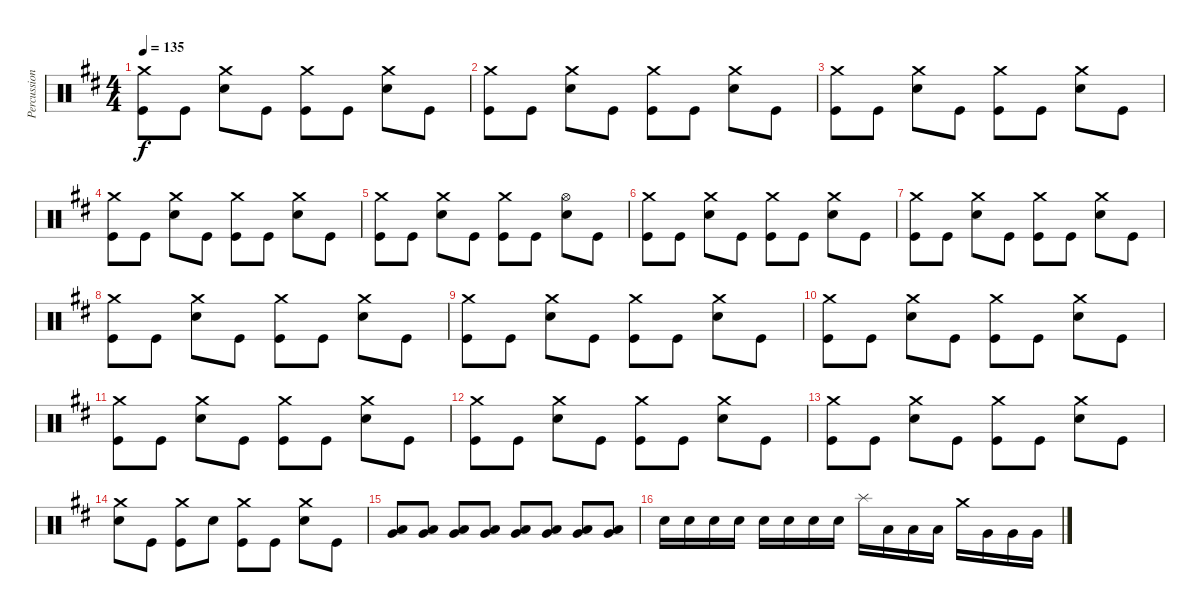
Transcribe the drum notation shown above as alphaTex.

\track ("Percussion" "Percussion") {instrument percussion}
\staff {score}
\articulation defaults
\ts (4 4)
\tempo 135
\clef neutral
\ks d
("Crash medium (hit)" "Kick (hit)").8{dy f} "Kick (hit)".8 ("Crash medium (hit)" "Electric Snare (hit)").8 "Kick (hit)".8 ("Crash medium (hit)" "Kick (hit)").8 "Kick (hit)".8 ("Crash medium (hit)" "Electric Snare (hit)").8 "Kick (hit)".8 |
("Crash medium (hit)" "Kick (hit)").8 "Kick (hit)".8 ("Crash medium (hit)" "Electric Snare (hit)").8 "Kick (hit)".8 ("Crash medium (hit)" "Kick (hit)").8 "Kick (hit)".8 ("Crash medium (hit)" "Electric Snare (hit)").8 "Kick (hit)".8 |
("Crash medium (hit)" "Kick (hit)").8 "Kick (hit)".8 ("Crash medium (hit)" "Electric Snare (hit)").8 "Kick (hit)".8 ("Crash medium (hit)" "Kick (hit)").8 "Kick (hit)".8 ("Crash medium (hit)" "Electric Snare (hit)").8 "Kick (hit)".8 |
("Crash medium (hit)" "Kick (hit)").8 "Kick (hit)".8 ("Crash medium (hit)" "Electric Snare (hit)").8 "Kick (hit)".8 ("Crash medium (hit)" "Kick (hit)").8 "Kick (hit)".8 ("Crash medium (hit)" "Electric Snare (hit)").8 "Kick (hit)".8 |
("Crash medium (hit)" "Kick (hit)").8 "Kick (hit)".8 ("Crash medium (hit)" "Electric Snare (hit)").8 "Kick (hit)".8 ("Crash medium (hit)" "Kick (hit)").8 "Kick (hit)".8 ("Hi-Hat (open)" "Electric Snare (hit)").8 "Kick (hit)".8 |
("Crash medium (hit)" "Kick (hit)").8 "Kick (hit)".8 ("Crash medium (hit)" "Electric Snare (hit)").8 "Kick (hit)".8 ("Crash medium (hit)" "Kick (hit)").8 "Kick (hit)".8 ("Crash medium (hit)" "Electric Snare (hit)").8 "Kick (hit)".8 |
("Crash medium (hit)" "Kick (hit)").8 "Kick (hit)".8 ("Crash medium (hit)" "Electric Snare (hit)").8 "Kick (hit)".8 ("Crash medium (hit)" "Kick (hit)").8 "Kick (hit)".8 ("Crash medium (hit)" "Electric Snare (hit)").8 "Kick (hit)".8 |
("Crash medium (hit)" "Kick (hit)").8 "Kick (hit)".8 ("Crash medium (hit)" "Electric Snare (hit)").8 "Kick (hit)".8 ("Crash medium (hit)" "Kick (hit)").8 "Kick (hit)".8 ("Crash medium (hit)" "Electric Snare (hit)").8 "Kick (hit)".8 |
("Crash medium (hit)" "Kick (hit)").8 "Kick (hit)".8 ("Crash medium (hit)" "Electric Snare (hit)").8 "Kick (hit)".8 ("Crash medium (hit)" "Kick (hit)").8 "Kick (hit)".8 ("Crash medium (hit)" "Electric Snare (hit)").8 "Kick (hit)".8 |
("Crash medium (hit)" "Kick (hit)").8 "Kick (hit)".8 ("Crash medium (hit)" "Electric Snare (hit)").8 "Kick (hit)".8 ("Crash medium (hit)" "Kick (hit)").8 "Kick (hit)".8 ("Crash medium (hit)" "Electric Snare (hit)").8 "Kick (hit)".8 |
("Crash medium (hit)" "Kick (hit)").8 "Kick (hit)".8 ("Crash medium (hit)" "Electric Snare (hit)").8 "Kick (hit)".8 ("Crash medium (hit)" "Kick (hit)").8 "Kick (hit)".8 ("Crash medium (hit)" "Electric Snare (hit)").8 "Kick (hit)".8 |
("Crash medium (hit)" "Kick (hit)").8 "Kick (hit)".8 ("Crash medium (hit)" "Electric Snare (hit)").8 "Kick (hit)".8 ("Crash medium (hit)" "Kick (hit)").8 "Kick (hit)".8 ("Crash medium (hit)" "Electric Snare (hit)").8 "Kick (hit)".8 |
("Crash medium (hit)" "Kick (hit)").8 "Kick (hit)".8 ("Crash medium (hit)" "Electric Snare (hit)").8 "Kick (hit)".8 ("Crash medium (hit)" "Kick (hit)").8 "Kick (hit)".8 ("Crash medium (hit)" "Electric Snare (hit)").8 "Kick (hit)".8 |
("Crash medium (hit)" "Electric Snare (hit)").8 "Kick (hit)".8 ("Crash medium (hit)" "Kick (hit)").8 "Electric Snare (hit)".8 ("Crash medium (hit)" "Kick (hit)").8 "Kick (hit)".8 ("Crash medium (hit)" "Electric Snare (hit)").8 "Kick (hit)".8 |
("Low Floor Tom (hit)" "Very Low Tom (hit)").8 ("Low Floor Tom (hit)" "Very Low Tom (hit)").8 ("Low Floor Tom (hit)" "Very Low Tom (hit)").8 ("Low Floor Tom (hit)" "Very Low Tom (hit)").8 ("Low Floor Tom (hit)" "Very Low Tom (hit)").8 ("Low Floor Tom (hit)" "Very Low Tom (hit)").8 ("Low Floor Tom (hit)" "Very Low Tom (hit)").8 ("Low Floor Tom (hit)" "Very Low Tom (hit)").8 |
"Electric Snare (hit)".16 "Electric Snare (hit)".16 "Electric Snare (hit)".16 "Electric Snare (hit)".16 "Electric Snare (hit)".16 "Electric Snare (hit)".16 "Electric Snare (hit)".16 "Electric Snare (hit)".16 "Splash (hit)".16 "Low Tom (hit)".16 "Low Tom (hit)".16 "Low Tom (hit)".16 "Crash medium (hit)".16 "Very Low Tom (hit)".16 "Very Low Tom (hit)".16 "Very Low Tom (hit)".16
